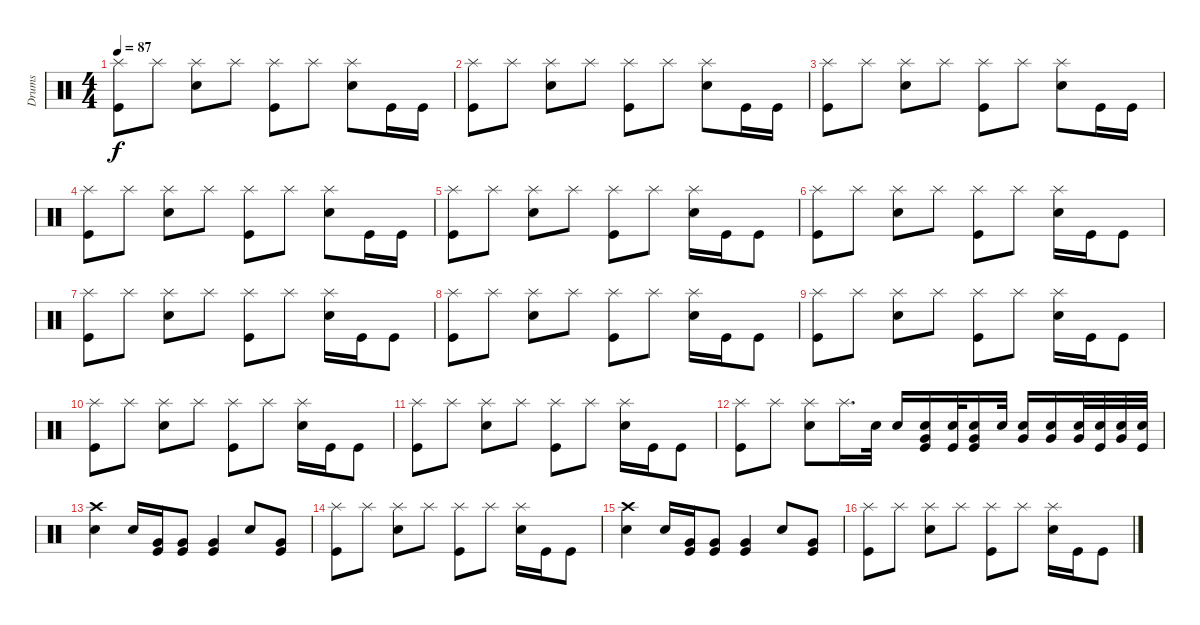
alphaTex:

\track ("Drums" "Drums") {instrument percussion}
\staff {score}
\articulation defaults
\ts (4 4)
\tempo 87
\clef neutral
\ks c
("Splash (hit)" "Kick (hit)").8{dy f} "Splash (hit)".8 ("Splash (hit)" "Electric Snare (hit)").8 "Splash (hit)".8 ("Splash (hit)" "Kick (hit)").8 "Splash (hit)".8 ("Splash (hit)" "Electric Snare (hit)").8 "Kick (hit)".16 "Kick (hit)".16 |
("Splash (hit)" "Kick (hit)").8 "Splash (hit)".8 ("Splash (hit)" "Electric Snare (hit)").8 "Splash (hit)".8 ("Splash (hit)" "Kick (hit)").8 "Splash (hit)".8 ("Splash (hit)" "Electric Snare (hit)").8 "Kick (hit)".16 "Kick (hit)".16 |
("Splash (hit)" "Kick (hit)").8 "Splash (hit)".8 ("Splash (hit)" "Electric Snare (hit)").8 "Splash (hit)".8 ("Splash (hit)" "Kick (hit)").8 "Splash (hit)".8 ("Splash (hit)" "Electric Snare (hit)").8 "Kick (hit)".16 "Kick (hit)".16 |
("Splash (hit)" "Kick (hit)").8 "Splash (hit)".8 ("Splash (hit)" "Electric Snare (hit)").8 "Splash (hit)".8 ("Splash (hit)" "Kick (hit)").8 "Splash (hit)".8 ("Splash (hit)" "Electric Snare (hit)").8 "Kick (hit)".16 "Kick (hit)".16 |
("Splash (hit)" "Kick (hit)").8 "Splash (hit)".8 ("Splash (hit)" "Electric Snare (hit)").8 "Splash (hit)".8 ("Splash (hit)" "Kick (hit)").8 "Splash (hit)".8 ("Splash (hit)" "Electric Snare (hit)").16 "Kick (hit)".16 "Kick (hit)".8 |
("Splash (hit)" "Kick (hit)").8 "Splash (hit)".8 ("Splash (hit)" "Electric Snare (hit)").8 "Splash (hit)".8 ("Splash (hit)" "Kick (hit)").8 "Splash (hit)".8 ("Splash (hit)" "Electric Snare (hit)").16 "Kick (hit)".16 "Kick (hit)".8 |
("Splash (hit)" "Kick (hit)").8 "Splash (hit)".8 ("Splash (hit)" "Electric Snare (hit)").8 "Splash (hit)".8 ("Splash (hit)" "Kick (hit)").8 "Splash (hit)".8 ("Splash (hit)" "Electric Snare (hit)").16 "Kick (hit)".16 "Kick (hit)".8 |
("Splash (hit)" "Kick (hit)").8 "Splash (hit)".8 ("Splash (hit)" "Electric Snare (hit)").8 "Splash (hit)".8 ("Splash (hit)" "Kick (hit)").8 "Splash (hit)".8 ("Splash (hit)" "Electric Snare (hit)").16 "Kick (hit)".16 "Kick (hit)".8 |
("Splash (hit)" "Kick (hit)").8 "Splash (hit)".8 ("Splash (hit)" "Electric Snare (hit)").8 "Splash (hit)".8 ("Splash (hit)" "Kick (hit)").8 "Splash (hit)".8 ("Splash (hit)" "Electric Snare (hit)").16 "Kick (hit)".16 "Kick (hit)".8 |
("Splash (hit)" "Kick (hit)").8 "Splash (hit)".8 ("Splash (hit)" "Electric Snare (hit)").8 "Splash (hit)".8 ("Splash (hit)" "Kick (hit)").8 "Splash (hit)".8 ("Splash (hit)" "Electric Snare (hit)").16 "Kick (hit)".16 "Kick (hit)".8 |
("Splash (hit)" "Kick (hit)").8 "Splash (hit)".8 ("Splash (hit)" "Electric Snare (hit)").8 "Splash (hit)".8 ("Splash (hit)" "Kick (hit)").8 "Splash (hit)".8 ("Splash (hit)" "Electric Snare (hit)").16 "Kick (hit)".16 "Kick (hit)".8 |
("Splash (hit)" "Kick (hit)").8 "Splash (hit)".8 ("Splash (hit)" "Electric Snare (hit)").8 "Splash (hit)".16{d} "Electric Snare (hit)".32 "Electric Snare (hit)".16 ("Kick (hit)" "Electric Snare (hit)" "Very Low Tom (hit)").16 ("Kick (hit)" "Electric Snare (hit)").32 ("Kick (hit)" "Electric Snare (hit)" "Very Low Tom (hit)").16 "Electric Snare (hit)".32 ("Electric Snare (hit)" "Very Low Tom (hit)").16 ("Electric Snare (hit)" "Very Low Tom (hit)").16 ("Electric Snare (hit)" "Very Low Tom (hit)").32 ("Kick (hit)" "Electric Snare (hit)").32 ("Electric Snare (hit)" "Very Low Tom (hit)").32 ("Kick (hit)" "Electric Snare (hit)").32 |
("Crash high (hit)" "Electric Snare (hit)").4 "Electric Snare (hit)".16 ("Kick (hit)" "Very Low Tom (hit)").16 ("Kick (hit)" "Very Low Tom (hit)").8 ("Kick (hit)" "Very Low Tom (hit)").4 "Electric Snare (hit)".8 ("Kick (hit)" "Very Low Tom (hit)").8 |
("Splash (hit)" "Kick (hit)").8 "Splash (hit)".8 ("Splash (hit)" "Electric Snare (hit)").8 "Splash (hit)".8 ("Splash (hit)" "Kick (hit)").8 "Splash (hit)".8 ("Splash (hit)" "Electric Snare (hit)").16 "Kick (hit)".16 "Kick (hit)".8 |
("Crash high (hit)" "Electric Snare (hit)").4 "Electric Snare (hit)".16 ("Kick (hit)" "Very Low Tom (hit)").16 ("Kick (hit)" "Very Low Tom (hit)").8 ("Kick (hit)" "Very Low Tom (hit)").4 "Electric Snare (hit)".8 ("Kick (hit)" "Very Low Tom (hit)").8 |
("Splash (hit)" "Kick (hit)").8 "Splash (hit)".8 ("Splash (hit)" "Electric Snare (hit)").8 "Splash (hit)".8 ("Splash (hit)" "Kick (hit)").8 "Splash (hit)".8 ("Splash (hit)" "Electric Snare (hit)").16 "Kick (hit)".16 "Kick (hit)".8
